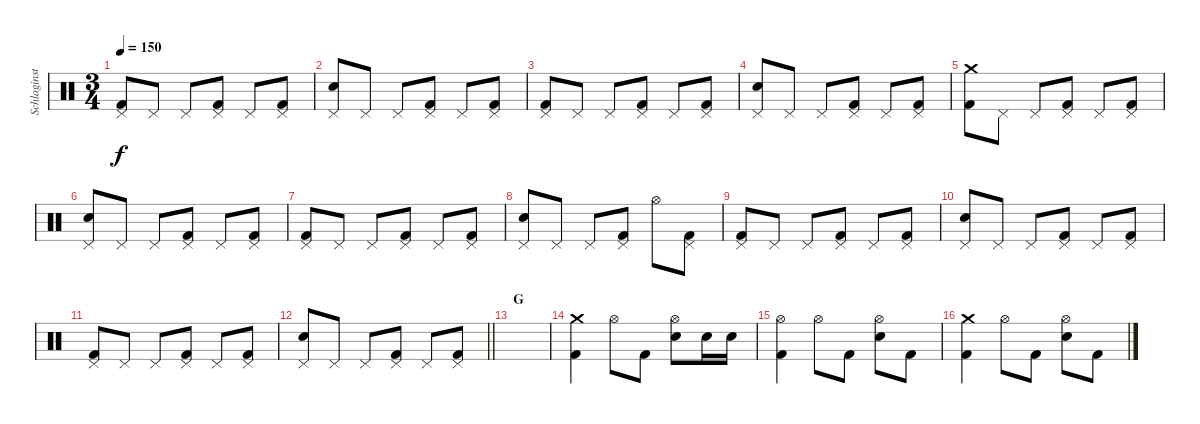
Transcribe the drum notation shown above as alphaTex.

\track ("Schlaginstrumente - Auswahl" "Schlaginst") {instrument percussion}
\staff {score}
\articulation defaults
\ts (3 4)
\tempo 150
\clef neutral
\ks c
("Pedal Hi-Hat (hit)" "Kick (hit) 2").8{dy f} "Pedal Hi-Hat (hit)".8 "Pedal Hi-Hat (hit)".8 ("Pedal Hi-Hat (hit)" "Kick (hit) 2").8 "Pedal Hi-Hat (hit)".8 ("Pedal Hi-Hat (hit)" "Kick (hit) 2").8 |
("Pedal Hi-Hat (hit)" "Electric Snare (hit)").8 "Pedal Hi-Hat (hit)".8 "Pedal Hi-Hat (hit)".8 ("Pedal Hi-Hat (hit)" "Kick (hit) 2").8 "Pedal Hi-Hat (hit)".8 ("Pedal Hi-Hat (hit)" "Kick (hit) 2").8 |
("Pedal Hi-Hat (hit)" "Kick (hit) 2").8 "Pedal Hi-Hat (hit)".8 "Pedal Hi-Hat (hit)".8 ("Pedal Hi-Hat (hit)" "Kick (hit) 2").8 "Pedal Hi-Hat (hit)".8 ("Pedal Hi-Hat (hit)" "Kick (hit) 2").8 |
("Pedal Hi-Hat (hit)" "Electric Snare (hit)").8 "Pedal Hi-Hat (hit)".8 "Pedal Hi-Hat (hit)".8 ("Pedal Hi-Hat (hit)" "Kick (hit) 2").8 "Pedal Hi-Hat (hit)".8 ("Pedal Hi-Hat (hit)" "Kick (hit) 2").8 |
("Crash medium (hit)" "Kick (hit) 2").8 "Pedal Hi-Hat (hit)".8 "Pedal Hi-Hat (hit)".8 ("Pedal Hi-Hat (hit)" "Kick (hit) 2").8 "Pedal Hi-Hat (hit)".8 ("Pedal Hi-Hat (hit)" "Kick (hit) 2").8 |
("Pedal Hi-Hat (hit)" "Electric Snare (hit)").8 "Pedal Hi-Hat (hit)".8 "Pedal Hi-Hat (hit)".8 ("Pedal Hi-Hat (hit)" "Kick (hit) 2").8 "Pedal Hi-Hat (hit)".8 ("Pedal Hi-Hat (hit)" "Kick (hit) 2").8 |
("Pedal Hi-Hat (hit)" "Kick (hit) 2").8 "Pedal Hi-Hat (hit)".8 "Pedal Hi-Hat (hit)".8 ("Pedal Hi-Hat (hit)" "Kick (hit) 2").8 "Pedal Hi-Hat (hit)".8 ("Pedal Hi-Hat (hit)" "Kick (hit) 2").8 |
("Pedal Hi-Hat (hit)" "Electric Snare (hit)").8 "Pedal Hi-Hat (hit)".8 "Pedal Hi-Hat (hit)".8 ("Pedal Hi-Hat (hit)" "Kick (hit) 2").8 "Hi-Hat (open)".8 ("Pedal Hi-Hat (hit)" "Kick (hit) 2").8 |
("Pedal Hi-Hat (hit)" "Kick (hit) 2").8 "Pedal Hi-Hat (hit)".8 "Pedal Hi-Hat (hit)".8 ("Pedal Hi-Hat (hit)" "Kick (hit) 2").8 "Pedal Hi-Hat (hit)".8 ("Pedal Hi-Hat (hit)" "Kick (hit) 2").8 |
("Pedal Hi-Hat (hit)" "Electric Snare (hit)").8 "Pedal Hi-Hat (hit)".8 "Pedal Hi-Hat (hit)".8 ("Pedal Hi-Hat (hit)" "Kick (hit) 2").8 "Pedal Hi-Hat (hit)".8 ("Pedal Hi-Hat (hit)" "Kick (hit) 2").8 |
("Pedal Hi-Hat (hit)" "Kick (hit) 2").8 "Pedal Hi-Hat (hit)".8 "Pedal Hi-Hat (hit)".8 ("Pedal Hi-Hat (hit)" "Kick (hit) 2").8 "Pedal Hi-Hat (hit)".8 ("Pedal Hi-Hat (hit)" "Kick (hit) 2").8 |
\barLineRight lightlight
("Pedal Hi-Hat (hit)" "Electric Snare (hit)").8 "Pedal Hi-Hat (hit)".8 "Pedal Hi-Hat (hit)".8 ("Pedal Hi-Hat (hit)" "Kick (hit) 2").8 "Pedal Hi-Hat (hit)".8 ("Pedal Hi-Hat (hit)" "Kick (hit) 2").8 |
\section ("" "G")
|
("Crash medium (hit)" "Kick (hit) 2").4 "Hi-Hat (open)".8 "Kick (hit) 2".8 ("Hi-Hat (open)" "Electric Snare (hit)").8 "Electric Snare (hit)".16 "Electric Snare (hit)".16 |
("Hi-Hat (open)" "Kick (hit) 2").4 "Hi-Hat (open)".8 "Kick (hit) 2".8 ("Hi-Hat (open)" "Electric Snare (hit)").8 "Kick (hit) 2".8 |
("Crash medium (hit)" "Kick (hit) 2").4 "Hi-Hat (open)".8 "Kick (hit) 2".8 ("Hi-Hat (open)" "Electric Snare (hit)").8 "Kick (hit) 2".8
